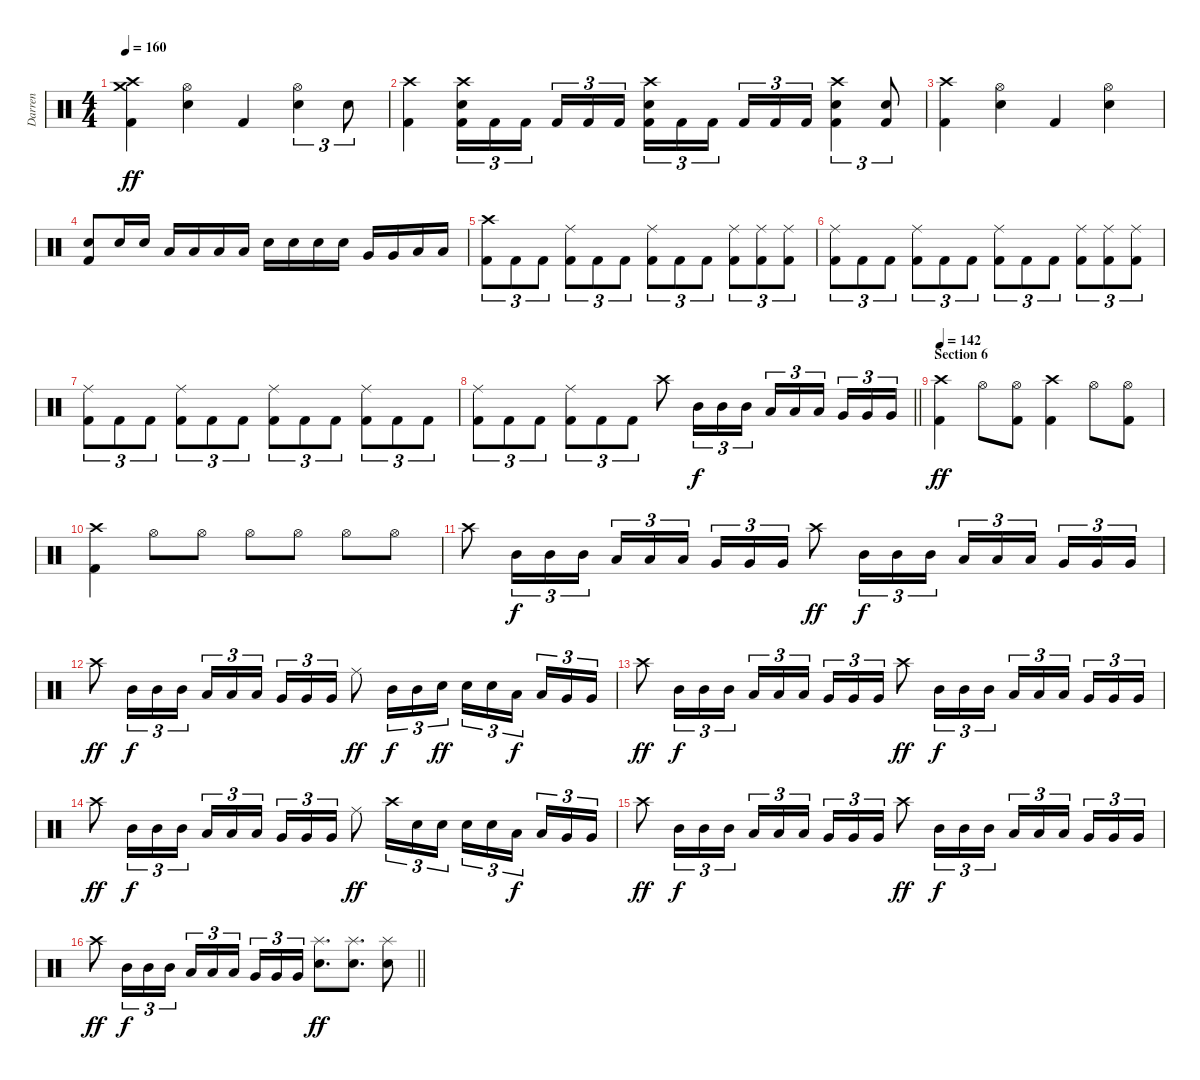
\track ("Darren" "Darren") {instrument percussion}
\staff {score}
\articulation defaults
\ts (4 4)
\tempo 160
\clef neutral
\ks c
("Crash medium (hit)" "Crash high (hit)" "Kick (hit) 2").4{dy ff} ("Hi-Hat (open)" "Electric Snare (hit)").4 "Kick (hit) 2".4 ("Hi-Hat (open)" "Electric Snare (hit)").4{tu (3 2)} "Electric Snare (hit)".8{tu (3 2)} |
("Crash high (hit)" "Kick (hit) 2").4 ("Crash high (hit)" "Electric Snare (hit)" "Kick (hit) 2").16{tu (3 2)} "Kick (hit) 2".16{tu (3 2)} "Kick (hit) 2".16{tu (3 2) beam splitsecondary} "Kick (hit) 2".16{tu (3 2)} "Kick (hit) 2".16{tu (3 2)} "Kick (hit) 2".16{tu (3 2)} ("Crash high (hit)" "Electric Snare (hit)" "Kick (hit) 2").16{tu (3 2)} "Kick (hit) 2".16{tu (3 2)} "Kick (hit) 2".16{tu (3 2) beam splitsecondary} "Kick (hit) 2".16{tu (3 2)} "Kick (hit) 2".16{tu (3 2)} "Kick (hit) 2".16{tu (3 2)} ("Crash high (hit)" "Electric Snare (hit)" "Kick (hit) 2").4{tu (3 2)} ("Electric Snare (hit)" "Kick (hit) 2").8{tu (3 2)} |
("Crash high (hit)" "Kick (hit) 2").4 ("Hi-Hat (open)" "Electric Snare (hit)").4 "Kick (hit) 2".4 ("Hi-Hat (open)" "Electric Snare (hit)").4 |
("Electric Snare (hit)" "Kick (hit) 2").8 "Electric Snare (hit)".16 "Electric Snare (hit)".16 "Low Tom (hit)".16 "Low Tom (hit)".16 "Low Tom (hit)".16 "Low Tom (hit)".16 "Electric Snare (hit)".16 "Electric Snare (hit)".16 "Electric Snare (hit)".16 "Electric Snare (hit)".16 "Very Low Tom (hit)".16 "Very Low Tom (hit)".16 "Low Tom (hit)".16 "Low Tom (hit)".16 |
("Crash high (hit)" "Kick (hit) 2").8{tu (3 2)} "Kick (hit) 2".8{tu (3 2)} "Kick (hit) 2".8{tu (3 2)} ("Ride (middle)" "Kick (hit) 2").8{tu (3 2)} "Kick (hit) 2".8{tu (3 2)} "Kick (hit) 2".8{tu (3 2)} ("Ride (middle)" "Kick (hit) 2").8{tu (3 2)} "Kick (hit) 2".8{tu (3 2)} "Kick (hit) 2".8{tu (3 2)} ("Ride (middle)" "Kick (hit) 2").8{tu (3 2)} ("Ride (middle)" "Kick (hit) 2").8{tu (3 2)} ("Ride (middle)" "Kick (hit) 2").8{tu (3 2)} |
("Ride (middle)" "Kick (hit) 2").8{tu (3 2)} "Kick (hit) 2".8{tu (3 2)} "Kick (hit) 2".8{tu (3 2)} ("Ride (middle)" "Kick (hit) 2").8{tu (3 2)} "Kick (hit) 2".8{tu (3 2)} "Kick (hit) 2".8{tu (3 2)} ("Ride (middle)" "Kick (hit) 2").8{tu (3 2)} "Kick (hit) 2".8{tu (3 2)} "Kick (hit) 2".8{tu (3 2)} ("Ride (middle)" "Kick (hit) 2").8{tu (3 2)} ("Ride (middle)" "Kick (hit) 2").8{tu (3 2)} ("Ride (middle)" "Kick (hit) 2").8{tu (3 2)} |
("Ride (middle)" "Kick (hit) 2").8{tu (3 2)} "Kick (hit) 2".8{tu (3 2)} "Kick (hit) 2".8{tu (3 2)} ("Ride (middle)" "Kick (hit) 2").8{tu (3 2)} "Kick (hit) 2".8{tu (3 2)} "Kick (hit) 2".8{tu (3 2)} ("Ride (middle)" "Kick (hit) 2").8{tu (3 2)} "Kick (hit) 2".8{tu (3 2)} "Kick (hit) 2".8{tu (3 2)} ("Ride (middle)" "Kick (hit) 2").8{tu (3 2)} "Kick (hit) 2".8{tu (3 2)} "Kick (hit) 2".8{tu (3 2)} |
\barLineRight lightlight
("Ride (middle)" "Kick (hit) 2").8{tu (3 2)} "Kick (hit) 2".8{tu (3 2)} "Kick (hit) 2".8{tu (3 2)} ("Ride (middle)" "Kick (hit) 2").8{tu (3 2)} "Kick (hit) 2".8{tu (3 2)} "Kick (hit) 2".8{tu (3 2)} "Crash high (hit)".8 "Mid Tom (hit)".16{tu (3 2) dy f} "Mid Tom (hit)".16{tu (3 2)} "Mid Tom (hit)".16{tu (3 2)} "Low Tom (hit)".16{tu (3 2)} "Low Tom (hit)".16{tu (3 2)} "Low Tom (hit)".16{tu (3 2) beam splitsecondary} "Very Low Tom (hit)".16{tu (3 2)} "Very Low Tom (hit)".16{tu (3 2)} "Very Low Tom (hit)".16{tu (3 2)} |
\section ("" "Section 6")
\tempo 142
("Crash high (hit)" "Kick (hit) 2").4{dy ff} "Hi-Hat (open)".8 ("Hi-Hat (open)" "Kick (hit) 2").8 ("Crash high (hit)" "Kick (hit) 2").4 "Hi-Hat (open)".8 ("Hi-Hat (open)" "Kick (hit) 2").8 |
("Crash high (hit)" "Kick (hit) 2").4 "Hi-Hat (open)".8 "Hi-Hat (open)".8 "Hi-Hat (open)".8 "Hi-Hat (open)".8 "Hi-Hat (open)".8 "Hi-Hat (open)".8 |
"Crash high (hit)".8 "Mid Tom (hit)".16{tu (3 2) dy f} "Mid Tom (hit)".16{tu (3 2)} "Mid Tom (hit)".16{tu (3 2)} "Low Tom (hit)".16{tu (3 2)} "Low Tom (hit)".16{tu (3 2)} "Low Tom (hit)".16{tu (3 2) beam splitsecondary} "Very Low Tom (hit)".16{tu (3 2)} "Very Low Tom (hit)".16{tu (3 2)} "Very Low Tom (hit)".16{tu (3 2)} "Crash high (hit)".8{dy ff} "Mid Tom (hit)".16{tu (3 2) dy f} "Mid Tom (hit)".16{tu (3 2)} "Mid Tom (hit)".16{tu (3 2)} "Low Tom (hit)".16{tu (3 2)} "Low Tom (hit)".16{tu (3 2)} "Low Tom (hit)".16{tu (3 2) beam splitsecondary} "Very Low Tom (hit)".16{tu (3 2)} "Very Low Tom (hit)".16{tu (3 2)} "Very Low Tom (hit)".16{tu (3 2)} |
"Crash high (hit)".8{dy ff} "Mid Tom (hit)".16{tu (3 2) dy f} "Mid Tom (hit)".16{tu (3 2)} "Mid Tom (hit)".16{tu (3 2)} "Low Tom (hit)".16{tu (3 2)} "Low Tom (hit)".16{tu (3 2)} "Low Tom (hit)".16{tu (3 2) beam splitsecondary} "Very Low Tom (hit)".16{tu (3 2)} "Very Low Tom (hit)".16{tu (3 2)} "Very Low Tom (hit)".16{tu (3 2)} "Ride (middle)".8{dy ff} "Mid Tom (hit)".16{tu (3 2) dy f} "Mid Tom (hit)".16{tu (3 2)} "Electric Snare (hit)".16{tu (3 2) dy ff} "Electric Snare (hit)".16{tu (3 2)} "Electric Snare (hit)".16{tu (3 2)} "Low Tom (hit)".16{tu (3 2) dy f beam splitsecondary} "Low Tom (hit)".16{tu (3 2)} "Very Low Tom (hit)".16{tu (3 2)} "Very Low Tom (hit)".16{tu (3 2)} |
"Crash high (hit)".8{dy ff} "Mid Tom (hit)".16{tu (3 2) dy f} "Mid Tom (hit)".16{tu (3 2)} "Mid Tom (hit)".16{tu (3 2)} "Low Tom (hit)".16{tu (3 2)} "Low Tom (hit)".16{tu (3 2)} "Low Tom (hit)".16{tu (3 2) beam splitsecondary} "Very Low Tom (hit)".16{tu (3 2)} "Very Low Tom (hit)".16{tu (3 2)} "Very Low Tom (hit)".16{tu (3 2)} "Crash high (hit)".8{dy ff} "Mid Tom (hit)".16{tu (3 2) dy f} "Mid Tom (hit)".16{tu (3 2)} "Mid Tom (hit)".16{tu (3 2)} "Low Tom (hit)".16{tu (3 2)} "Low Tom (hit)".16{tu (3 2)} "Low Tom (hit)".16{tu (3 2) beam splitsecondary} "Very Low Tom (hit)".16{tu (3 2)} "Very Low Tom (hit)".16{tu (3 2)} "Very Low Tom (hit)".16{tu (3 2)} |
"Crash high (hit)".8{dy ff} "Mid Tom (hit)".16{tu (3 2) dy f} "Mid Tom (hit)".16{tu (3 2)} "Mid Tom (hit)".16{tu (3 2)} "Low Tom (hit)".16{tu (3 2)} "Low Tom (hit)".16{tu (3 2)} "Low Tom (hit)".16{tu (3 2) beam splitsecondary} "Very Low Tom (hit)".16{tu (3 2)} "Very Low Tom (hit)".16{tu (3 2)} "Very Low Tom (hit)".16{tu (3 2)} "Ride (middle)".8{dy ff} "Crash high (hit)".16{tu (3 2)} "Electric Snare (hit)".16{tu (3 2)} "Electric Snare (hit)".16{tu (3 2)} "Electric Snare (hit)".16{tu (3 2)} "Electric Snare (hit)".16{tu (3 2)} "Low Tom (hit)".16{tu (3 2) dy f beam splitsecondary} "Low Tom (hit)".16{tu (3 2)} "Very Low Tom (hit)".16{tu (3 2)} "Very Low Tom (hit)".16{tu (3 2)} |
"Crash high (hit)".8{dy ff} "Mid Tom (hit)".16{tu (3 2) dy f} "Mid Tom (hit)".16{tu (3 2)} "Mid Tom (hit)".16{tu (3 2)} "Low Tom (hit)".16{tu (3 2)} "Low Tom (hit)".16{tu (3 2)} "Low Tom (hit)".16{tu (3 2) beam splitsecondary} "Very Low Tom (hit)".16{tu (3 2)} "Very Low Tom (hit)".16{tu (3 2)} "Very Low Tom (hit)".16{tu (3 2)} "Crash high (hit)".8{dy ff} "Mid Tom (hit)".16{tu (3 2) dy f} "Mid Tom (hit)".16{tu (3 2)} "Mid Tom (hit)".16{tu (3 2)} "Low Tom (hit)".16{tu (3 2)} "Low Tom (hit)".16{tu (3 2)} "Low Tom (hit)".16{tu (3 2) beam splitsecondary} "Very Low Tom (hit)".16{tu (3 2)} "Very Low Tom (hit)".16{tu (3 2)} "Very Low Tom (hit)".16{tu (3 2)} |
\barLineRight lightlight "Crash high (hit)".8{dy ff} "Mid Tom (hit)".16{tu (3 2) dy f} "Mid Tom (hit)".16{tu (3 2)} "Mid Tom (hit)".16{tu (3 2)} "Low Tom (hit)".16{tu (3 2)} "Low Tom (hit)".16{tu (3 2)} "Low Tom (hit)".16{tu (3 2) beam splitsecondary} "Very Low Tom (hit)".16{tu (3 2)} "Very Low Tom (hit)".16{tu (3 2)} "Very Low Tom (hit)".16{tu (3 2)}
("Splash (hit)" "Electric Snare (hit)").8{d dy ff} ("Splash (hit)" "Electric Snare (hit)").8{d} ("Splash (hit)" "Electric Snare (hit)").8
